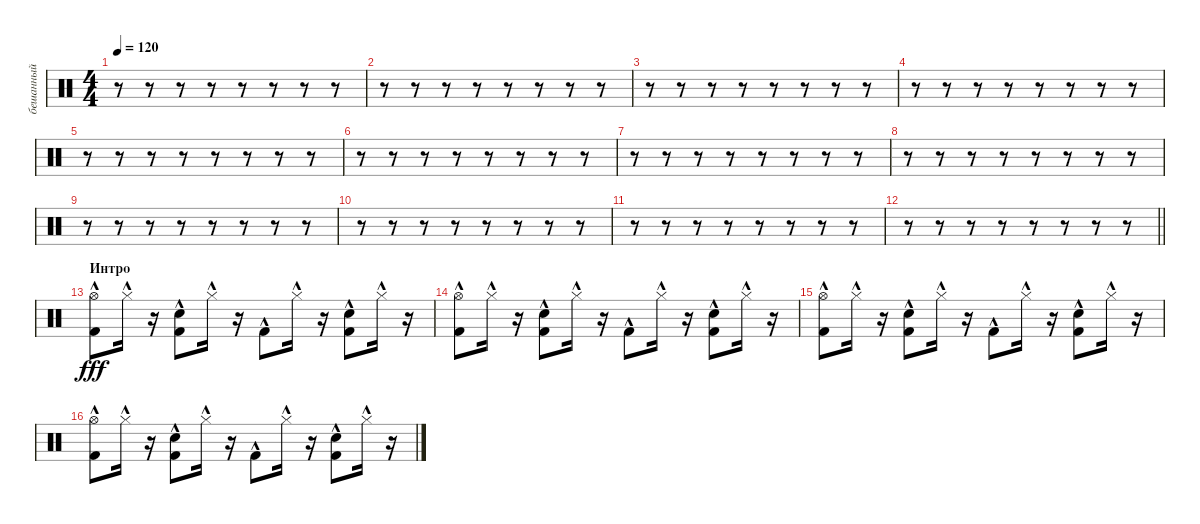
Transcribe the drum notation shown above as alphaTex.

\track ("бешанный" "бешанный") {instrument percussion}
\staff {score}
\articulation defaults
\ts (4 4)
\tempo 120
\clef neutral
\ks c
r.8{dy fff} r.8 r.8 r.8 r.8 r.8 r.8 r.8 |
r.8 r.8 r.8 r.8 r.8 r.8 r.8 r.8 |
r.8 r.8 r.8 r.8 r.8 r.8 r.8 r.8 |
r.8 r.8 r.8 r.8 r.8 r.8 r.8 r.8 |
r.8 r.8 r.8 r.8 r.8 r.8 r.8 r.8 |
r.8 r.8 r.8 r.8 r.8 r.8 r.8 r.8 |
r.8 r.8 r.8 r.8 r.8 r.8 r.8 r.8 |
r.8 r.8 r.8 r.8 r.8 r.8 r.8 r.8 |
r.8 r.8 r.8 r.8 r.8 r.8 r.8 r.8 |
r.8 r.8 r.8 r.8 r.8 r.8 r.8 r.8 |
r.8 r.8 r.8 r.8 r.8 r.8 r.8 r.8 |
\barLineRight lightlight
r.8 r.8 r.8 r.8 r.8 r.8 r.8 r.8 |
\section ("" "Интро")
("Kick (hit) 2"{hac} "Hi-Hat (open)"{hac}).8 "Hi-Hat (closed)"{hac}.16 r.16 ("Kick (hit) 2"{hac} "Snare (hit) 2"{hac}).8 "Hi-Hat (closed)"{hac}.16 r.16 "Kick (hit) 2"{hac}.8 "Hi-Hat (closed)"{hac}.16 r.16 ("Kick (hit) 2"{hac} "Snare (hit) 2"{hac}).8 "Hi-Hat (closed)"{hac}.16 r.16 |
("Kick (hit) 2"{hac} "Hi-Hat (open)"{hac}).8 "Hi-Hat (closed)"{hac}.16 r.16 ("Kick (hit) 2"{hac} "Snare (hit) 2"{hac}).8 "Hi-Hat (closed)"{hac}.16 r.16 "Kick (hit) 2"{hac}.8 "Hi-Hat (closed)"{hac}.16 r.16 ("Kick (hit) 2"{hac} "Snare (hit) 2"{hac}).8 "Hi-Hat (closed)"{hac}.16 r.16 |
("Kick (hit) 2"{hac} "Hi-Hat (open)"{hac}).8 "Hi-Hat (closed)"{hac}.16 r.16 ("Kick (hit) 2"{hac} "Snare (hit) 2"{hac}).8 "Hi-Hat (closed)"{hac}.16 r.16 "Kick (hit) 2"{hac}.8 "Hi-Hat (closed)"{hac}.16 r.16 ("Kick (hit) 2"{hac} "Snare (hit) 2"{hac}).8 "Hi-Hat (closed)"{hac}.16 r.16 |
("Kick (hit) 2"{hac} "Hi-Hat (open)"{hac}).8 "Hi-Hat (closed)"{hac}.16 r.16 ("Kick (hit) 2"{hac} "Snare (hit) 2"{hac}).8 "Hi-Hat (closed)"{hac}.16 r.16 "Kick (hit) 2"{hac}.8 "Hi-Hat (closed)"{hac}.16 r.16 ("Kick (hit) 2"{hac} "Snare (hit) 2"{hac}).8 "Hi-Hat (closed)"{hac}.16 r.16
